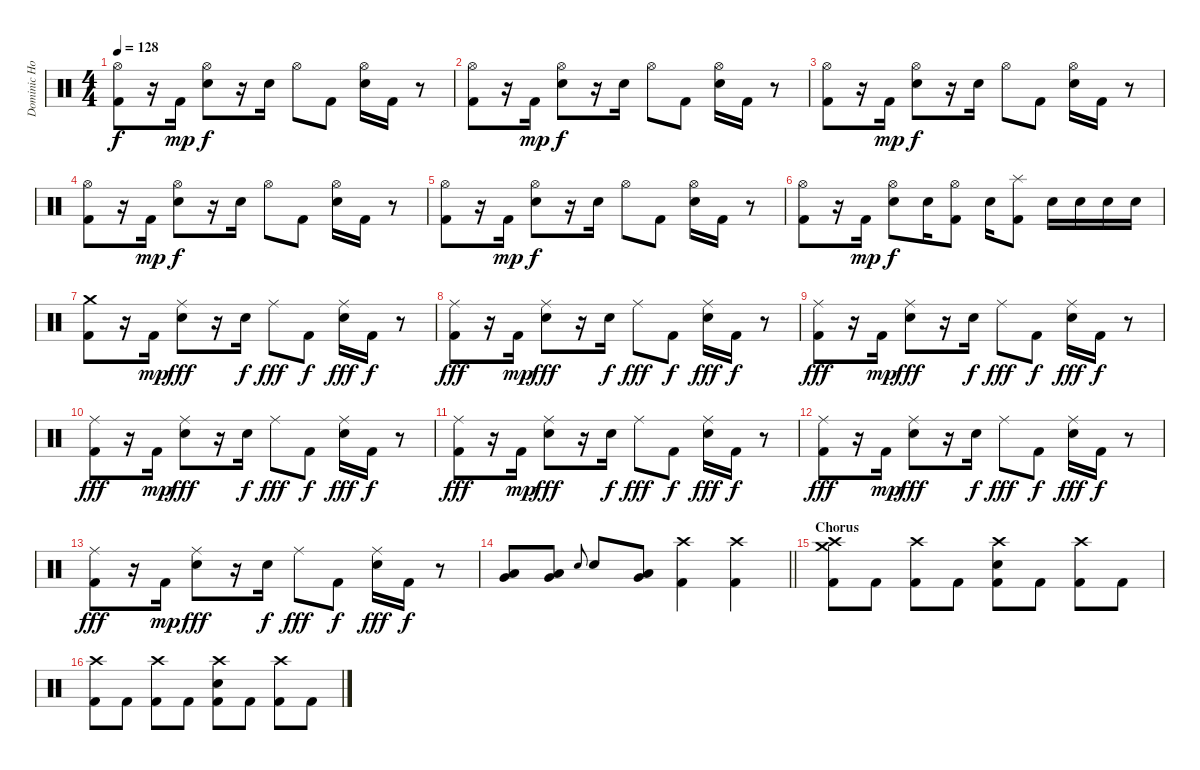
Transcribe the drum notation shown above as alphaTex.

\track ("Dominic Howard (Drums)" "Dominic Ho") {instrument percussion}
\staff {score}
\articulation defaults
\ts (4 4)
\tempo 128
\clef neutral
\ks c
("Hi-Hat (open)" "Kick (hit) 2").8{dy f} r.16 "Kick (hit) 2".16{dy mp} ("Hi-Hat (open)" "Electric Snare (hit)").8{dy f} r.16 "Electric Snare (hit)".16 "Hi-Hat (open)".8 "Kick (hit) 2".8 ("Hi-Hat (open)" "Electric Snare (hit)").16 "Kick (hit) 2".16 r.8 |
("Hi-Hat (open)" "Kick (hit) 2").8 r.16 "Kick (hit) 2".16{dy mp} ("Hi-Hat (open)" "Electric Snare (hit)").8{dy f} r.16 "Electric Snare (hit)".16 "Hi-Hat (open)".8 "Kick (hit) 2".8 ("Hi-Hat (open)" "Electric Snare (hit)").16 "Kick (hit) 2".16 r.8 |
("Hi-Hat (open)" "Kick (hit) 2").8 r.16 "Kick (hit) 2".16{dy mp} ("Hi-Hat (open)" "Electric Snare (hit)").8{dy f} r.16 "Electric Snare (hit)".16 "Hi-Hat (open)".8 "Kick (hit) 2".8 ("Hi-Hat (open)" "Electric Snare (hit)").16 "Kick (hit) 2".16 r.8 |
("Hi-Hat (open)" "Kick (hit) 2").8 r.16 "Kick (hit) 2".16{dy mp} ("Hi-Hat (open)" "Electric Snare (hit)").8{dy f} r.16 "Electric Snare (hit)".16 "Hi-Hat (open)".8 "Kick (hit) 2".8 ("Hi-Hat (open)" "Electric Snare (hit)").16 "Kick (hit) 2".16 r.8 |
("Hi-Hat (open)" "Kick (hit) 2").8 r.16 "Kick (hit) 2".16{dy mp} ("Hi-Hat (open)" "Electric Snare (hit)").8{dy f} r.16 "Electric Snare (hit)".16 "Hi-Hat (open)".8 "Kick (hit) 2".8 ("Hi-Hat (open)" "Electric Snare (hit)").16 "Kick (hit) 2".16 r.8 |
("Hi-Hat (open)" "Kick (hit) 2").8 r.16 "Kick (hit) 2".16{dy mp} ("Hi-Hat (open)" "Electric Snare (hit)").8{dy f} "Electric Snare (hit)".16 ("Hi-Hat (open)" "Kick (hit) 2").8 "Electric Snare (hit)".16 ("Splash (hit)" "Kick (hit) 2").8 "Electric Snare (hit)".16 "Electric Snare (hit)".16 "Electric Snare (hit)".16 "Electric Snare (hit)".16 |
("Crash medium (hit)" "Kick (hit) 2").8 r.16 "Kick (hit) 2".16{dy mp} ("Ride (middle)" "Electric Snare (hit)").8{dy fff} r.16 "Electric Snare (hit)".16{dy f} "Ride (middle)".8{dy fff} "Kick (hit) 2".8{dy f} ("Ride (middle)" "Electric Snare (hit)").16{dy fff} "Kick (hit) 2".16{dy f} r.8 |
("Ride (middle)" "Kick (hit) 2").8{dy fff} r.16 "Kick (hit) 2".16{dy mp} ("Ride (middle)" "Electric Snare (hit)").8{dy fff} r.16 "Electric Snare (hit)".16{dy f} "Ride (middle)".8{dy fff} "Kick (hit) 2".8{dy f} ("Ride (middle)" "Electric Snare (hit)").16{dy fff} "Kick (hit) 2".16{dy f} r.8 |
("Ride (middle)" "Kick (hit) 2").8{dy fff} r.16 "Kick (hit) 2".16{dy mp} ("Ride (middle)" "Electric Snare (hit)").8{dy fff} r.16 "Electric Snare (hit)".16{dy f} "Ride (middle)".8{dy fff} "Kick (hit) 2".8{dy f} ("Ride (middle)" "Electric Snare (hit)").16{dy fff} "Kick (hit) 2".16{dy f} r.8 |
("Ride (middle)" "Kick (hit) 2").8{dy fff} r.16 "Kick (hit) 2".16{dy mp} ("Ride (middle)" "Electric Snare (hit)").8{dy fff} r.16 "Electric Snare (hit)".16{dy f} "Ride (middle)".8{dy fff} "Kick (hit) 2".8{dy f} ("Ride (middle)" "Electric Snare (hit)").16{dy fff} "Kick (hit) 2".16{dy f} r.8 |
("Ride (middle)" "Kick (hit) 2").8{dy fff} r.16 "Kick (hit) 2".16{dy mp} ("Ride (middle)" "Electric Snare (hit)").8{dy fff} r.16 "Electric Snare (hit)".16{dy f} "Ride (middle)".8{dy fff} "Kick (hit) 2".8{dy f} ("Ride (middle)" "Electric Snare (hit)").16{dy fff} "Kick (hit) 2".16{dy f} r.8 |
("Ride (middle)" "Kick (hit) 2").8{dy fff} r.16 "Kick (hit) 2".16{dy mp} ("Ride (middle)" "Electric Snare (hit)").8{dy fff} r.16 "Electric Snare (hit)".16{dy f} "Ride (middle)".8{dy fff} "Kick (hit) 2".8{dy f} ("Ride (middle)" "Electric Snare (hit)").16{dy fff} "Kick (hit) 2".16{dy f} r.8 |
("Ride (middle)" "Kick (hit) 2").8{dy fff} r.16 "Kick (hit) 2".16{dy mp} ("Ride (middle)" "Electric Snare (hit)").8{dy fff} r.16 "Electric Snare (hit)".16{dy f} "Ride (middle)".8{dy fff} "Kick (hit) 2".8{dy f} ("Ride (middle)" "Electric Snare (hit)").16{dy fff} "Kick (hit) 2".16{dy f} r.8 |
\barLineRight lightlight
("Very Low Tom (hit)" "Low Floor Tom (hit)").8 ("Very Low Tom (hit)" "Low Floor Tom (hit)").8 "Electric Snare (hit)".8{gr onbeat} "Electric Snare (hit)".8 ("Very Low Tom (hit)" "Low Floor Tom (hit)").8 ("Crash high (hit)" "Kick (hit) 2").4 ("Crash high (hit)" "Kick (hit) 2").4 |
\section ("" "Chorus")
("Crash medium (hit)" "Crash high (hit)" "Kick (hit) 2").8 "Kick (hit) 2".8 ("Crash high (hit)" "Kick (hit) 2").8 "Kick (hit) 2".8 ("Crash high (hit)" "Electric Snare (hit)" "Kick (hit) 2").8 "Kick (hit) 2".8 ("Crash high (hit)" "Kick (hit) 2").8 "Kick (hit) 2".8 |
("Crash high (hit)" "Kick (hit) 2").8 "Kick (hit) 2".8 ("Crash high (hit)" "Kick (hit) 2").8 "Kick (hit) 2".8 ("Crash high (hit)" "Electric Snare (hit)" "Kick (hit) 2").8 "Kick (hit) 2".8 ("Crash high (hit)" "Kick (hit) 2").8 "Kick (hit) 2".8
